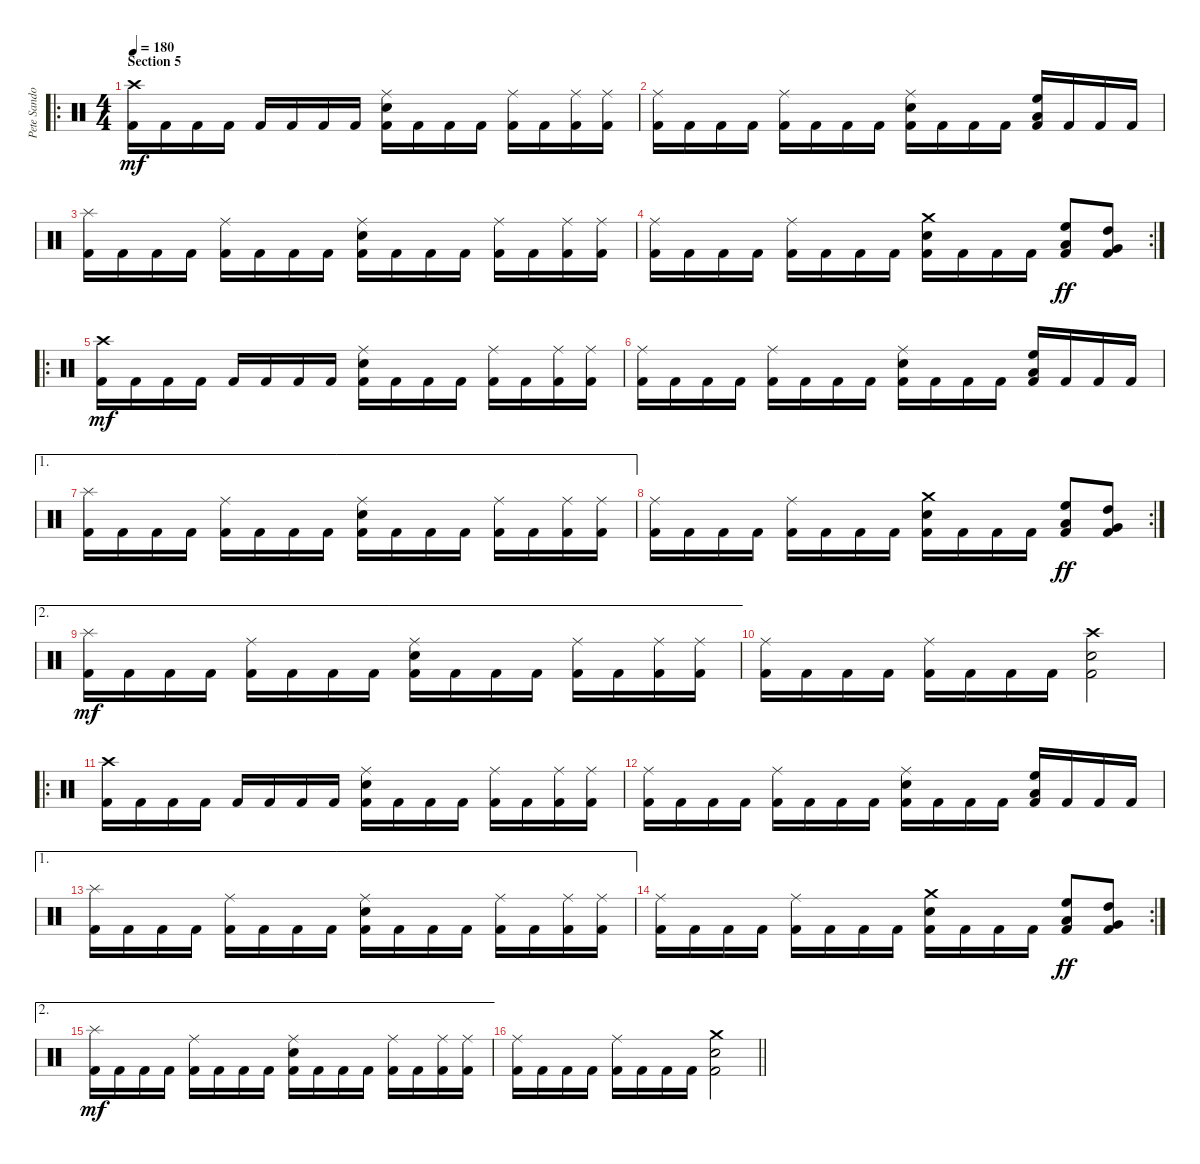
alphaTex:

\track ("Pete Sandoval" "Pete Sando") {instrument percussion}
\staff {score}
\articulation defaults
\ro
\ts (4 4)
\section ("" "Section 5")
\tempo 180
\clef neutral
\ks c
("Crash high (hit)" "Kick (hit) 2").16{dy mf} "Kick (hit) 2".16 "Kick (hit) 2".16 "Kick (hit) 2".16 "Kick (hit) 2".16 "Kick (hit) 2".16 "Kick (hit) 2".16 "Kick (hit) 2".16 ("Snare (hit) 2" "Ride (middle)" "Kick (hit) 2").16 "Kick (hit) 2".16 "Kick (hit) 2".16 "Kick (hit) 2".16 ("Ride (middle)" "Kick (hit) 2").16 "Kick (hit) 2".16 ("Ride (middle)" "Kick (hit) 2").16 ("Ride (middle)" "Kick (hit) 2").16 |
("Ride (middle)" "Kick (hit) 2").16 "Kick (hit) 2".16 "Kick (hit) 2".16 "Kick (hit) 2".16 ("Ride (middle)" "Kick (hit) 2").16 "Kick (hit) 2".16 "Kick (hit) 2".16 "Kick (hit) 2".16 ("Snare (hit) 2" "Ride (middle)" "Kick (hit) 2").16 "Kick (hit) 2".16 "Kick (hit) 2".16 "Kick (hit) 2".16 ("High Floor Tom (hit)" "Low Tom (hit)" "Kick (hit) 2").16 "Kick (hit) 2".16 "Kick (hit) 2".16 "Kick (hit) 2".16 |
("Splash (hit)" "Kick (hit) 2").16 "Kick (hit) 2".16 "Kick (hit) 2".16 "Kick (hit) 2".16 ("Ride (middle)" "Kick (hit) 2").16 "Kick (hit) 2".16 "Kick (hit) 2".16 "Kick (hit) 2".16 ("Snare (hit) 2" "Ride (middle)" "Kick (hit) 2").16 "Kick (hit) 2".16 "Kick (hit) 2".16 "Kick (hit) 2".16 ("Ride (middle)" "Kick (hit) 2").16 "Kick (hit) 2".16 ("Ride (middle)" "Kick (hit) 2").16 ("Ride (middle)" "Kick (hit) 2").16 |
\rc 2
("Ride (middle)" "Kick (hit) 2").16 "Kick (hit) 2".16 "Kick (hit) 2".16 "Kick (hit) 2".16 ("Ride (middle)" "Kick (hit) 2").16 "Kick (hit) 2".16 "Kick (hit) 2".16 "Kick (hit) 2".16 ("Snare (hit) 2" "Crash medium (hit)" "Kick (hit) 2").16 "Kick (hit) 2".16 "Kick (hit) 2".16 "Kick (hit) 2".16 ("High Floor Tom (hit)" "Low Tom (hit)" "Kick (hit) 2").8{dy ff} ("High Tom (hit)" "Very Low Tom (hit)" "Kick (hit) 2").8 |
\ro
("Crash high (hit)" "Kick (hit) 2").16{dy mf} "Kick (hit) 2".16 "Kick (hit) 2".16 "Kick (hit) 2".16 "Kick (hit) 2".16 "Kick (hit) 2".16 "Kick (hit) 2".16 "Kick (hit) 2".16 ("Snare (hit) 2" "Ride (middle)" "Kick (hit) 2").16 "Kick (hit) 2".16 "Kick (hit) 2".16 "Kick (hit) 2".16 ("Ride (middle)" "Kick (hit) 2").16 "Kick (hit) 2".16 ("Ride (middle)" "Kick (hit) 2").16 ("Ride (middle)" "Kick (hit) 2").16 |
("Ride (middle)" "Kick (hit) 2").16 "Kick (hit) 2".16 "Kick (hit) 2".16 "Kick (hit) 2".16 ("Ride (middle)" "Kick (hit) 2").16 "Kick (hit) 2".16 "Kick (hit) 2".16 "Kick (hit) 2".16 ("Snare (hit) 2" "Ride (middle)" "Kick (hit) 2").16 "Kick (hit) 2".16 "Kick (hit) 2".16 "Kick (hit) 2".16 ("High Floor Tom (hit)" "Low Tom (hit)" "Kick (hit) 2").16 "Kick (hit) 2".16 "Kick (hit) 2".16 "Kick (hit) 2".16 |
\ae 1
("Splash (hit)" "Kick (hit) 2").16 "Kick (hit) 2".16 "Kick (hit) 2".16 "Kick (hit) 2".16 ("Ride (middle)" "Kick (hit) 2").16 "Kick (hit) 2".16 "Kick (hit) 2".16 "Kick (hit) 2".16 ("Snare (hit) 2" "Ride (middle)" "Kick (hit) 2").16 "Kick (hit) 2".16 "Kick (hit) 2".16 "Kick (hit) 2".16 ("Ride (middle)" "Kick (hit) 2").16 "Kick (hit) 2".16 ("Ride (middle)" "Kick (hit) 2").16 ("Ride (middle)" "Kick (hit) 2").16 |
\rc 2
("Ride (middle)" "Kick (hit) 2").16 "Kick (hit) 2".16 "Kick (hit) 2".16 "Kick (hit) 2".16 ("Ride (middle)" "Kick (hit) 2").16 "Kick (hit) 2".16 "Kick (hit) 2".16 "Kick (hit) 2".16 ("Snare (hit) 2" "Crash medium (hit)" "Kick (hit) 2").16 "Kick (hit) 2".16 "Kick (hit) 2".16 "Kick (hit) 2".16 ("High Floor Tom (hit)" "Low Tom (hit)" "Kick (hit) 2").8{dy ff} ("High Tom (hit)" "Very Low Tom (hit)" "Kick (hit) 2").8 |
\ae 2
("Splash (hit)" "Kick (hit) 2").16{dy mf} "Kick (hit) 2".16 "Kick (hit) 2".16 "Kick (hit) 2".16 ("Ride (middle)" "Kick (hit) 2").16 "Kick (hit) 2".16 "Kick (hit) 2".16 "Kick (hit) 2".16 ("Snare (hit) 2" "Ride (middle)" "Kick (hit) 2").16 "Kick (hit) 2".16 "Kick (hit) 2".16 "Kick (hit) 2".16 ("Ride (middle)" "Kick (hit) 2").16 "Kick (hit) 2".16 ("Ride (middle)" "Kick (hit) 2").16 ("Ride (middle)" "Kick (hit) 2").16 |
("Ride (middle)" "Kick (hit) 2").16 "Kick (hit) 2".16 "Kick (hit) 2".16 "Kick (hit) 2".16 ("Ride (middle)" "Kick (hit) 2").16 "Kick (hit) 2".16 "Kick (hit) 2".16 "Kick (hit) 2".16 ("Snare (hit) 2" "Crash high (hit)" "Kick (hit) 2").2 |
\ro
("Crash high (hit)" "Kick (hit) 2").16 "Kick (hit) 2".16 "Kick (hit) 2".16 "Kick (hit) 2".16 "Kick (hit) 2".16 "Kick (hit) 2".16 "Kick (hit) 2".16 "Kick (hit) 2".16 ("Snare (hit) 2" "Ride (middle)" "Kick (hit) 2").16 "Kick (hit) 2".16 "Kick (hit) 2".16 "Kick (hit) 2".16 ("Ride (middle)" "Kick (hit) 2").16 "Kick (hit) 2".16 ("Ride (middle)" "Kick (hit) 2").16 ("Ride (middle)" "Kick (hit) 2").16 |
("Ride (middle)" "Kick (hit) 2").16 "Kick (hit) 2".16 "Kick (hit) 2".16 "Kick (hit) 2".16 ("Ride (middle)" "Kick (hit) 2").16 "Kick (hit) 2".16 "Kick (hit) 2".16 "Kick (hit) 2".16 ("Snare (hit) 2" "Ride (middle)" "Kick (hit) 2").16 "Kick (hit) 2".16 "Kick (hit) 2".16 "Kick (hit) 2".16 ("High Floor Tom (hit)" "Low Tom (hit)" "Kick (hit) 2").16 "Kick (hit) 2".16 "Kick (hit) 2".16 "Kick (hit) 2".16 |
\ae 1
("Splash (hit)" "Kick (hit) 2").16 "Kick (hit) 2".16 "Kick (hit) 2".16 "Kick (hit) 2".16 ("Ride (middle)" "Kick (hit) 2").16 "Kick (hit) 2".16 "Kick (hit) 2".16 "Kick (hit) 2".16 ("Snare (hit) 2" "Ride (middle)" "Kick (hit) 2").16 "Kick (hit) 2".16 "Kick (hit) 2".16 "Kick (hit) 2".16 ("Ride (middle)" "Kick (hit) 2").16 "Kick (hit) 2".16 ("Ride (middle)" "Kick (hit) 2").16 ("Ride (middle)" "Kick (hit) 2").16 |
\rc 2
("Ride (middle)" "Kick (hit) 2").16 "Kick (hit) 2".16 "Kick (hit) 2".16 "Kick (hit) 2".16 ("Ride (middle)" "Kick (hit) 2").16 "Kick (hit) 2".16 "Kick (hit) 2".16 "Kick (hit) 2".16 ("Snare (hit) 2" "Crash medium (hit)" "Kick (hit) 2").16 "Kick (hit) 2".16 "Kick (hit) 2".16 "Kick (hit) 2".16 ("High Floor Tom (hit)" "Low Tom (hit)" "Kick (hit) 2").8{dy ff} ("High Tom (hit)" "Very Low Tom (hit)" "Kick (hit) 2").8 |
\ae 2
("Splash (hit)" "Kick (hit) 2").16{dy mf} "Kick (hit) 2".16 "Kick (hit) 2".16 "Kick (hit) 2".16 ("Ride (middle)" "Kick (hit) 2").16 "Kick (hit) 2".16 "Kick (hit) 2".16 "Kick (hit) 2".16 ("Snare (hit) 2" "Ride (middle)" "Kick (hit) 2").16 "Kick (hit) 2".16 "Kick (hit) 2".16 "Kick (hit) 2".16 ("Ride (middle)" "Kick (hit) 2").16 "Kick (hit) 2".16 ("Ride (middle)" "Kick (hit) 2").16 ("Ride (middle)" "Kick (hit) 2").16 |
\barLineRight lightlight
("Ride (middle)" "Kick (hit) 2").16 "Kick (hit) 2".16 "Kick (hit) 2".16 "Kick (hit) 2".16 ("Ride (middle)" "Kick (hit) 2").16 "Kick (hit) 2".16 "Kick (hit) 2".16 "Kick (hit) 2".16 ("Snare (hit) 2" "Crash medium (hit)" "Kick (hit) 2").2
